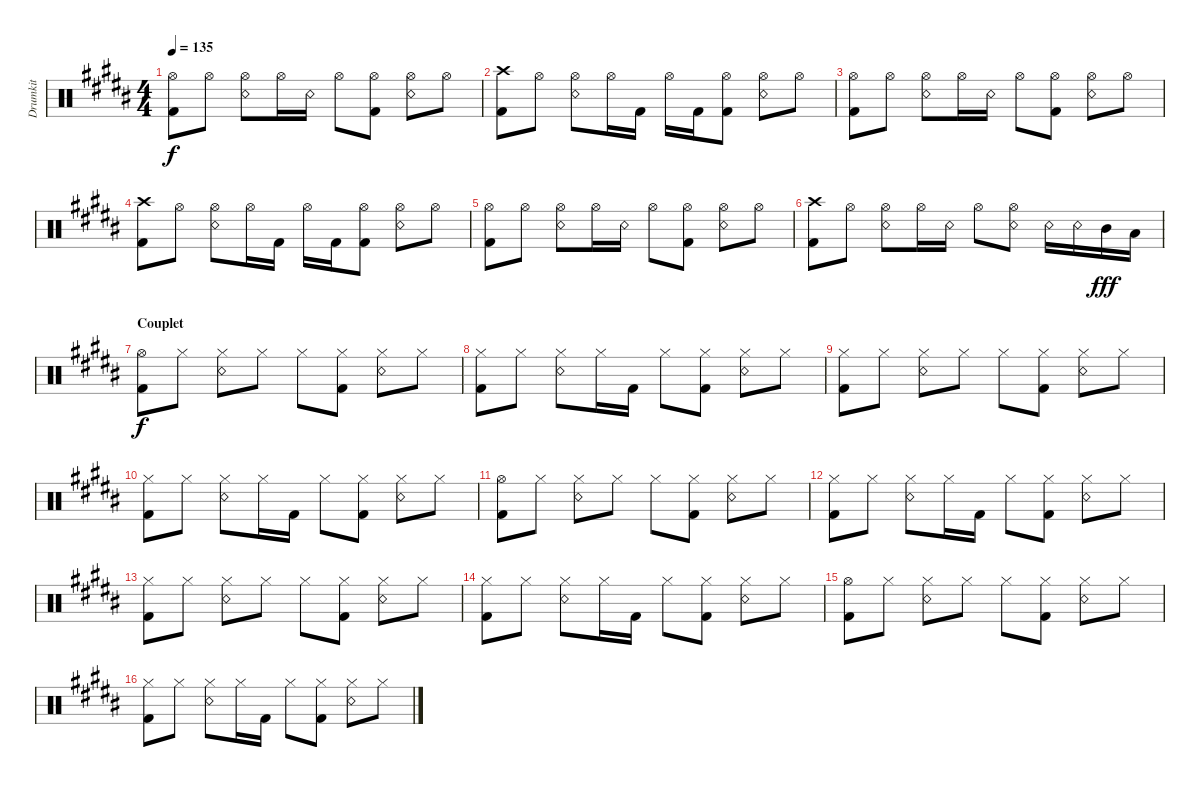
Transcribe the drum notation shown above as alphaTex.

\track ("Drumkit" "Drumkit") {instrument percussion}
\staff {score}
\articulation defaults
\ts (4 4)
\tempo 135
\clef neutral
\ks b
("Kick (hit) 2" "Hi-Hat (open)").8{dy f} "Hi-Hat (open)".8 ("Snare (rim shot)" "Hi-Hat (open)").8 "Hi-Hat (open)".16 "Snare (rim shot)".16 "Hi-Hat (open)".8 ("Hi-Hat (open)" "Kick (hit) 2").8 ("Snare (rim shot)" "Hi-Hat (open)").8 "Hi-Hat (open)".8 |
("Kick (hit) 2" "Crash high (hit)").8 "Hi-Hat (open)".8 ("Snare (rim shot)" "Hi-Hat (open)").8 "Hi-Hat (open)".16 "Kick (hit) 2".16 "Hi-Hat (open)".16 "Kick (hit) 2".16 ("Kick (hit) 2" "Hi-Hat (open)").8 ("Snare (rim shot)" "Hi-Hat (open)").8 "Hi-Hat (open)".8 |
("Kick (hit) 2" "Hi-Hat (open)").8 "Hi-Hat (open)".8 ("Snare (rim shot)" "Hi-Hat (open)").8 "Hi-Hat (open)".16 "Snare (rim shot)".16 "Hi-Hat (open)".8 ("Hi-Hat (open)" "Kick (hit) 2").8 ("Snare (rim shot)" "Hi-Hat (open)").8 "Hi-Hat (open)".8 |
("Kick (hit) 2" "Crash high (hit)").8 "Hi-Hat (open)".8 ("Snare (rim shot)" "Hi-Hat (open)").8 "Hi-Hat (open)".16 "Kick (hit) 2".16 "Hi-Hat (open)".16 "Kick (hit) 2".16 ("Kick (hit) 2" "Hi-Hat (open)").8 ("Snare (rim shot)" "Hi-Hat (open)").8 "Hi-Hat (open)".8 |
("Kick (hit) 2" "Hi-Hat (open)").8 "Hi-Hat (open)".8 ("Snare (rim shot)" "Hi-Hat (open)").8 "Hi-Hat (open)".16 "Snare (rim shot)".16 "Hi-Hat (open)".8 ("Hi-Hat (open)" "Kick (hit) 2").8 ("Snare (rim shot)" "Hi-Hat (open)").8 "Hi-Hat (open)".8 |
("Kick (hit) 2" "Crash high (hit)").8 "Hi-Hat (open)".8 ("Snare (rim shot)" "Hi-Hat (open)").8 "Hi-Hat (open)".16 "Snare (rim shot)".16 "Hi-Hat (open)".8 ("Hi-Hat (open)" "Snare (rim shot)").8 "Snare (rim shot)".16 "Snare (rim shot)".16 "Mid Tom (hit)".16{dy fff} "Low Tom (hit)".16 |
\section ("" "Couplet")
("Kick (hit) 2" "Hi-Hat (open)").8{dy f} "Hi-Hat (closed)".8 ("Hi-Hat (closed)" "Snare (rim shot)").8 "Hi-Hat (closed)".8 "Hi-Hat (closed)".8 ("Hi-Hat (closed)" "Kick (hit) 2").8 ("Hi-Hat (closed)" "Snare (rim shot)").8 "Hi-Hat (closed)".8 |
("Hi-Hat (closed)" "Kick (hit) 2").8 "Hi-Hat (closed)".8 ("Hi-Hat (closed)" "Snare (rim shot)").8 "Hi-Hat (closed)".16 "Kick (hit) 2".16 "Hi-Hat (closed)".8 ("Kick (hit) 2" "Hi-Hat (closed)").8 ("Snare (rim shot)" "Hi-Hat (closed)").8 "Hi-Hat (closed)".8 |
("Kick (hit) 2" "Hi-Hat (closed)").8 "Hi-Hat (closed)".8 ("Hi-Hat (closed)" "Snare (rim shot)").8 "Hi-Hat (closed)".8 "Hi-Hat (closed)".8 ("Hi-Hat (closed)" "Kick (hit) 2").8 ("Hi-Hat (closed)" "Snare (rim shot)").8 "Hi-Hat (closed)".8 |
("Hi-Hat (closed)" "Kick (hit) 2").8 "Hi-Hat (closed)".8 ("Hi-Hat (closed)" "Snare (rim shot)").8 "Hi-Hat (closed)".16 "Kick (hit) 2".16 "Hi-Hat (closed)".8 ("Kick (hit) 2" "Hi-Hat (closed)").8 ("Snare (rim shot)" "Hi-Hat (closed)").8 "Hi-Hat (closed)".8 |
("Kick (hit) 2" "Hi-Hat (open)").8 "Hi-Hat (closed)".8 ("Hi-Hat (closed)" "Snare (rim shot)").8 "Hi-Hat (closed)".8 "Hi-Hat (closed)".8 ("Hi-Hat (closed)" "Kick (hit) 2").8 ("Hi-Hat (closed)" "Snare (rim shot)").8 "Hi-Hat (closed)".8 |
("Hi-Hat (closed)" "Kick (hit) 2").8 "Hi-Hat (closed)".8 ("Hi-Hat (closed)" "Snare (rim shot)").8 "Hi-Hat (closed)".16 "Kick (hit) 2".16 "Hi-Hat (closed)".8 ("Kick (hit) 2" "Hi-Hat (closed)").8 ("Snare (rim shot)" "Hi-Hat (closed)").8 "Hi-Hat (closed)".8 |
("Kick (hit) 2" "Hi-Hat (closed)").8 "Hi-Hat (closed)".8 ("Hi-Hat (closed)" "Snare (rim shot)").8 "Hi-Hat (closed)".8 "Hi-Hat (closed)".8 ("Hi-Hat (closed)" "Kick (hit) 2").8 ("Hi-Hat (closed)" "Snare (rim shot)").8 "Hi-Hat (closed)".8 |
("Hi-Hat (closed)" "Kick (hit) 2").8 "Hi-Hat (closed)".8 ("Hi-Hat (closed)" "Snare (rim shot)").8 "Hi-Hat (closed)".16 "Kick (hit) 2".16 "Hi-Hat (closed)".8 ("Kick (hit) 2" "Hi-Hat (closed)").8 ("Snare (rim shot)" "Hi-Hat (closed)").8 "Hi-Hat (closed)".8 |
("Kick (hit) 2" "Hi-Hat (open)").8 "Hi-Hat (closed)".8 ("Hi-Hat (closed)" "Snare (rim shot)").8 "Hi-Hat (closed)".8 "Hi-Hat (closed)".8 ("Hi-Hat (closed)" "Kick (hit) 2").8 ("Hi-Hat (closed)" "Snare (rim shot)").8 "Hi-Hat (closed)".8 |
("Hi-Hat (closed)" "Kick (hit) 2").8 "Hi-Hat (closed)".8 ("Hi-Hat (closed)" "Snare (rim shot)").8 "Hi-Hat (closed)".16 "Kick (hit) 2".16 "Hi-Hat (closed)".8 ("Kick (hit) 2" "Hi-Hat (closed)").8 ("Snare (rim shot)" "Hi-Hat (closed)").8 "Hi-Hat (closed)".8
